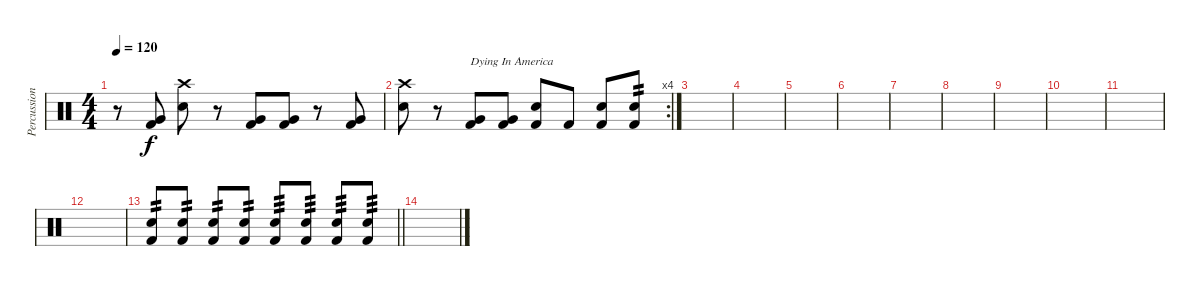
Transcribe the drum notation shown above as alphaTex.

\track ("Percussion" "Percussion") {instrument percussion}
\staff {score}
\articulation defaults
\ts (4 4)
\tempo 120
\clef neutral
\ks c
r.8{dy f} ("Very Low Tom (hit)" "Kick (hit) 2").8 ("Crash high (hit)" "Electric Snare (hit)").8 r.8 ("Very Low Tom (hit)" "Kick (hit) 2").8 ("Very Low Tom (hit)" "Kick (hit) 2").8 r.8 ("Very Low Tom (hit)" "Kick (hit) 2").8 |
\rc 4
("Crash high (hit)" "Electric Snare (hit)").8 r.8 ("Very Low Tom (hit)" "Kick (hit) 2").8{txt "Dying In America"} ("Very Low Tom (hit)" "Kick (hit) 2").8 ("Electric Snare (hit)" "Kick (hit) 2").8 "Kick (hit) 2".8 ("Electric Snare (hit)" "Kick (hit) 2").8 ("Electric Snare (hit)" "Kick (hit) 2").8{tp 2} |
|
|
|
|
|
|
|
|
|
|
\barLineRight lightlight
("Electric Snare (hit)" "Kick (hit) 2").8{tp 2} ("Electric Snare (hit)" "Kick (hit) 2").8{tp 2} ("Electric Snare (hit)" "Kick (hit) 2").8{tp 2} ("Electric Snare (hit)" "Kick (hit) 2").8{tp 2} ("Electric Snare (hit)" "Kick (hit) 2").8{tp 3} ("Electric Snare (hit)" "Kick (hit) 2").8{tp 3} ("Electric Snare (hit)" "Kick (hit) 2").8{tp 3} ("Electric Snare (hit)" "Kick (hit) 2").8{tp 3} |
\section ("" "")
